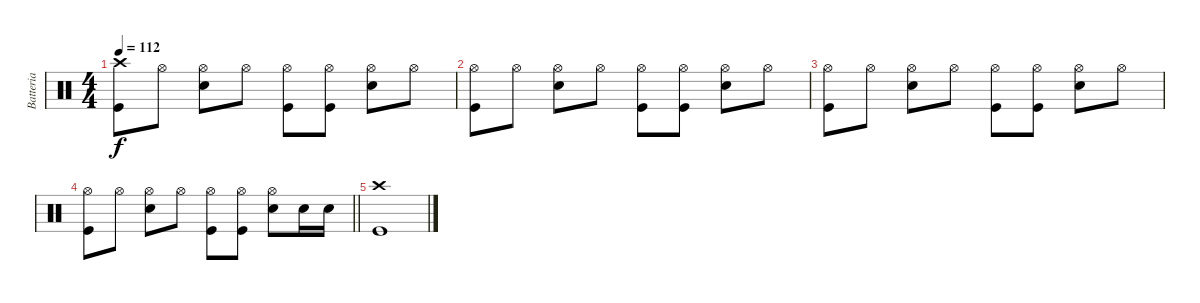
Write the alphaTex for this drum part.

\track ("Batteria" "Batteria") {instrument percussion}
\staff {score}
\articulation defaults
\ts (4 4)
\tempo 112
\clef neutral
\ks c
("Kick (hit)" "Crash high (hit)").8{dy f} "Hi-Hat (open)".8 ("Snare (hit) 2" "Hi-Hat (open)").8 "Hi-Hat (open)".8 ("Kick (hit)" "Hi-Hat (open)").8 ("Kick (hit)" "Hi-Hat (open)").8 ("Snare (hit) 2" "Hi-Hat (open)").8 "Hi-Hat (open)".8 |
("Kick (hit)" "Hi-Hat (open)").8 "Hi-Hat (open)".8 ("Snare (hit) 2" "Hi-Hat (open)").8 "Hi-Hat (open)".8 ("Kick (hit)" "Hi-Hat (open)").8 ("Kick (hit)" "Hi-Hat (open)").8 ("Snare (hit) 2" "Hi-Hat (open)").8 "Hi-Hat (open)".8 |
("Kick (hit)" "Hi-Hat (open)").8 "Hi-Hat (open)".8 ("Snare (hit) 2" "Hi-Hat (open)").8 "Hi-Hat (open)".8 ("Kick (hit)" "Hi-Hat (open)").8 ("Kick (hit)" "Hi-Hat (open)").8 ("Snare (hit) 2" "Hi-Hat (open)").8 "Hi-Hat (open)".8 |
\barLineRight lightlight
("Kick (hit)" "Hi-Hat (open)").8 "Hi-Hat (open)".8 ("Snare (hit) 2" "Hi-Hat (open)").8 "Hi-Hat (open)".8 ("Kick (hit)" "Hi-Hat (open)").8 ("Kick (hit)" "Hi-Hat (open)").8 ("Snare (hit) 2" "Hi-Hat (open)").8 "Snare (hit) 2".16 "Snare (hit) 2".16 |
("Crash high (hit)" "Kick (hit)").1
